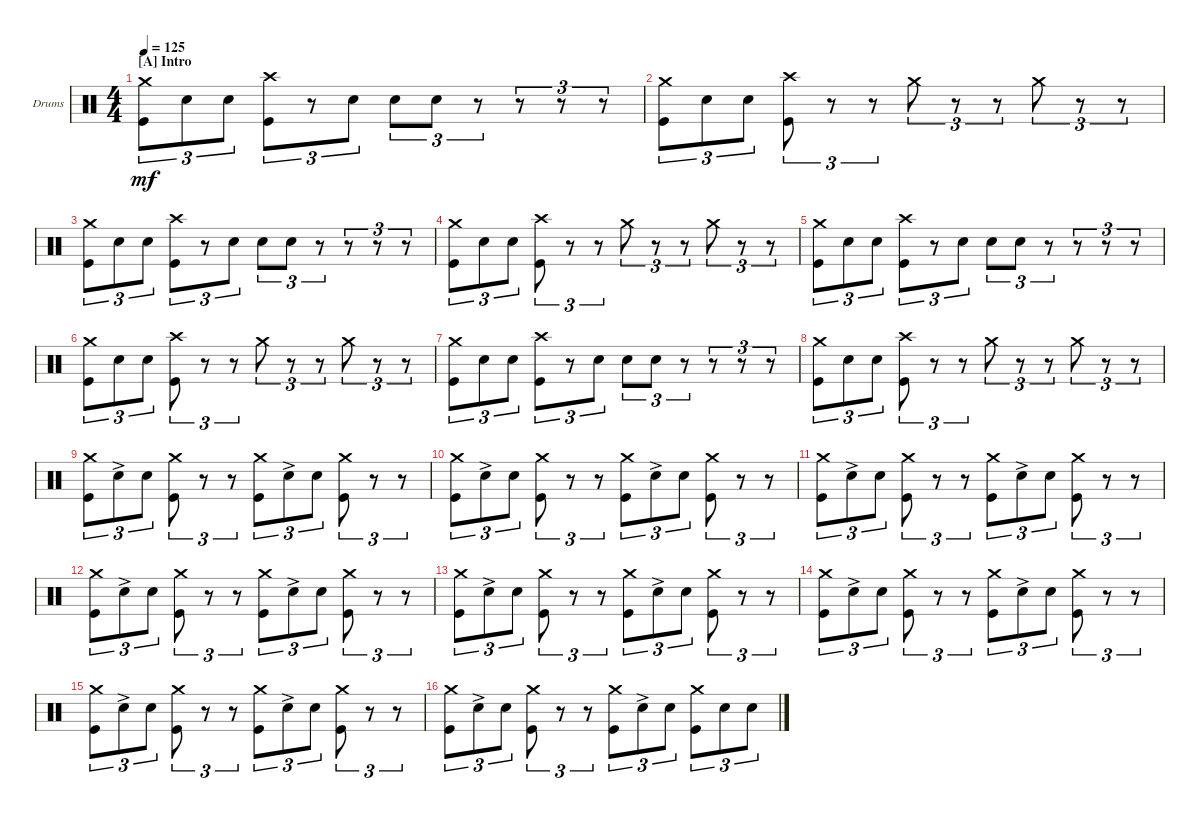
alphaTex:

\defaultSystemsLayout 4
\bracketExtendMode groupsimilarinstruments
\firstSystemTrackNameOrientation horizontal
\otherSystemsTrackNameOrientation horizontal
\track ("Drumkit" "Drums") {instrument percussion}
\staff {score}
\articulation defaults
\ts (4 4)
\section ("A" "Intro")
\tempo 125
\clef neutral
\scale
0.474178
\ks c
("Kick (hit)" "Crash medium (hit)").8{tu (3 2) dy mf} "Snare (hit) 2".8{tu (3 2)} "Snare (hit) 2".8{tu (3 2)} ("Kick (hit)" "Crash high (hit)").8{tu (3 2)} r.8{tu (3 2)} "Snare (hit) 2".8{tu (3 2)} "Snare (hit) 2".8{tu (3 2)} "Snare (hit) 2".8{tu (3 2)} r.8{tu (3 2)} r.8{tu (3 2)} r.8{tu (3 2)} r.8{tu (3 2)} |
\scale
0.262911 ("Kick (hit)" "Crash medium (hit)").8{tu (3 2)} "Snare (hit) 2".8{tu (3 2)} "Snare (hit) 2".8{tu (3 2)} ("Kick (hit)" "Crash high (hit)").8{tu (3 2)} r.8{tu (3 2)} r.8{tu (3 2)} "Crash medium (hit)".8{tu (3 2)} r.8{tu (3 2)} r.8{tu (3 2)} "Crash medium (hit)".8{tu (3 2)} r.8{tu (3 2)} r.8{tu (3 2)} |
\scale
0.262911 ("Kick (hit)" "Crash medium (hit)").8{tu (3 2)} "Snare (hit) 2".8{tu (3 2)} "Snare (hit) 2".8{tu (3 2)} ("Kick (hit)" "Crash high (hit)").8{tu (3 2)} r.8{tu (3 2)} "Snare (hit) 2".8{tu (3 2)} "Snare (hit) 2".8{tu (3 2)} "Snare (hit) 2".8{tu (3 2)} r.8{tu (3 2)} r.8{tu (3 2)} r.8{tu (3 2)} r.8{tu (3 2)} |
\scale
0.333333 ("Kick (hit)" "Crash medium (hit)").8{tu (3 2)} "Snare (hit) 2".8{tu (3 2)} "Snare (hit) 2".8{tu (3 2)} ("Kick (hit)" "Crash high (hit)").8{tu (3 2)} r.8{tu (3 2)} r.8{tu (3 2)} "Crash medium (hit)".8{tu (3 2)} r.8{tu (3 2)} r.8{tu (3 2)} "Crash medium (hit)".8{tu (3 2)} r.8{tu (3 2)} r.8{tu (3 2)} |
\scale
0.333333 ("Kick (hit)" "Crash medium (hit)").8{tu (3 2)} "Snare (hit) 2".8{tu (3 2)} "Snare (hit) 2".8{tu (3 2)} ("Kick (hit)" "Crash high (hit)").8{tu (3 2)} r.8{tu (3 2)} "Snare (hit) 2".8{tu (3 2)} "Snare (hit) 2".8{tu (3 2)} "Snare (hit) 2".8{tu (3 2)} r.8{tu (3 2)} r.8{tu (3 2)} r.8{tu (3 2)} r.8{tu (3 2)} |
\scale
0.333333 ("Kick (hit)" "Crash medium (hit)").8{tu (3 2)} "Snare (hit) 2".8{tu (3 2)} "Snare (hit) 2".8{tu (3 2)} ("Kick (hit)" "Crash high (hit)").8{tu (3 2)} r.8{tu (3 2)} r.8{tu (3 2)} "Crash medium (hit)".8{tu (3 2)} r.8{tu (3 2)} r.8{tu (3 2)} "Crash medium (hit)".8{tu (3 2)} r.8{tu (3 2)} r.8{tu (3 2)} |
\scale
0.333333 ("Kick (hit)" "Crash medium (hit)").8{tu (3 2)} "Snare (hit) 2".8{tu (3 2)} "Snare (hit) 2".8{tu (3 2)} ("Kick (hit)" "Crash high (hit)").8{tu (3 2)} r.8{tu (3 2)} "Snare (hit) 2".8{tu (3 2)} "Snare (hit) 2".8{tu (3 2)} "Snare (hit) 2".8{tu (3 2)} r.8{tu (3 2)} r.8{tu (3 2)} r.8{tu (3 2)} r.8{tu (3 2)} |
\scale
0.333333 ("Kick (hit)" "Crash medium (hit)").8{tu (3 2)} "Snare (hit) 2".8{tu (3 2)} "Snare (hit) 2".8{tu (3 2)} ("Kick (hit)" "Crash high (hit)").8{tu (3 2)} r.8{tu (3 2)} r.8{tu (3 2)} "Crash medium (hit)".8{tu (3 2)} r.8{tu (3 2)} r.8{tu (3 2)} "Crash medium (hit)".8{tu (3 2)} r.8{tu (3 2)} r.8{tu (3 2)} |
\scale
0.333333 ("Kick (hit)" "Crash medium (hit)").8{tu (3 2)} "Snare (hit) 2"{ac}.8{tu (3 2)} "Snare (hit) 2".8{tu (3 2)} ("Kick (hit)" "Crash medium (hit)").8{tu (3 2)} r.8{tu (3 2)} r.8{tu (3 2)} ("Kick (hit)" "Crash medium (hit)").8{tu (3 2)} "Snare (hit) 2"{ac}.8{tu (3 2)} "Snare (hit) 2".8{tu (3 2)} ("Kick (hit)" "Crash medium (hit)").8{tu (3 2)} r.8{tu (3 2)} r.8{tu (3 2)} |
\scale
0.333333 ("Kick (hit)" "Crash medium (hit)").8{tu (3 2)} "Snare (hit) 2"{ac}.8{tu (3 2)} "Snare (hit) 2".8{tu (3 2)} ("Kick (hit)" "Crash medium (hit)").8{tu (3 2)} r.8{tu (3 2)} r.8{tu (3 2)} ("Kick (hit)" "Crash medium (hit)").8{tu (3 2)} "Snare (hit) 2"{ac}.8{tu (3 2)} "Snare (hit) 2".8{tu (3 2)} ("Kick (hit)" "Crash medium (hit)").8{tu (3 2)} r.8{tu (3 2)} r.8{tu (3 2)} |
\scale
0.333333 ("Kick (hit)" "Crash medium (hit)").8{tu (3 2)} "Snare (hit) 2"{ac}.8{tu (3 2)} "Snare (hit) 2".8{tu (3 2)} ("Kick (hit)" "Crash medium (hit)").8{tu (3 2)} r.8{tu (3 2)} r.8{tu (3 2)} ("Kick (hit)" "Crash medium (hit)").8{tu (3 2)} "Snare (hit) 2"{ac}.8{tu (3 2)} "Snare (hit) 2".8{tu (3 2)} ("Kick (hit)" "Crash medium (hit)").8{tu (3 2)} r.8{tu (3 2)} r.8{tu (3 2)} |
\scale
0.333333 ("Kick (hit)" "Crash medium (hit)").8{tu (3 2)} "Snare (hit) 2"{ac}.8{tu (3 2)} "Snare (hit) 2".8{tu (3 2)} ("Kick (hit)" "Crash medium (hit)").8{tu (3 2)} r.8{tu (3 2)} r.8{tu (3 2)} ("Kick (hit)" "Crash medium (hit)").8{tu (3 2)} "Snare (hit) 2"{ac}.8{tu (3 2)} "Snare (hit) 2".8{tu (3 2)} ("Kick (hit)" "Crash medium (hit)").8{tu (3 2)} r.8{tu (3 2)} r.8{tu (3 2)} |
\scale
0.333333 ("Kick (hit)" "Crash medium (hit)").8{tu (3 2)} "Snare (hit) 2"{ac}.8{tu (3 2)} "Snare (hit) 2".8{tu (3 2)} ("Kick (hit)" "Crash medium (hit)").8{tu (3 2)} r.8{tu (3 2)} r.8{tu (3 2)} ("Kick (hit)" "Crash medium (hit)").8{tu (3 2)} "Snare (hit) 2"{ac}.8{tu (3 2)} "Snare (hit) 2".8{tu (3 2)} ("Kick (hit)" "Crash medium (hit)").8{tu (3 2)} r.8{tu (3 2)} r.8{tu (3 2)} |
\scale
0.333333 ("Kick (hit)" "Crash medium (hit)").8{tu (3 2)} "Snare (hit) 2"{ac}.8{tu (3 2)} "Snare (hit) 2".8{tu (3 2)} ("Kick (hit)" "Crash medium (hit)").8{tu (3 2)} r.8{tu (3 2)} r.8{tu (3 2)} ("Kick (hit)" "Crash medium (hit)").8{tu (3 2)} "Snare (hit) 2"{ac}.8{tu (3 2)} "Snare (hit) 2".8{tu (3 2)} ("Kick (hit)" "Crash medium (hit)").8{tu (3 2)} r.8{tu (3 2)} r.8{tu (3 2)} |
\scale
0.333333 ("Kick (hit)" "Crash medium (hit)").8{tu (3 2)} "Snare (hit) 2"{ac}.8{tu (3 2)} "Snare (hit) 2".8{tu (3 2)} ("Kick (hit)" "Crash medium (hit)").8{tu (3 2)} r.8{tu (3 2)} r.8{tu (3 2)} ("Kick (hit)" "Crash medium (hit)").8{tu (3 2)} "Snare (hit) 2"{ac}.8{tu (3 2)} "Snare (hit) 2".8{tu (3 2)} ("Kick (hit)" "Crash medium (hit)").8{tu (3 2)} r.8{tu (3 2)} r.8{tu (3 2)} |
\scale
0.333333 ("Kick (hit)" "Crash medium (hit)").8{tu (3 2)} "Snare (hit) 2"{ac}.8{tu (3 2)} "Snare (hit) 2".8{tu (3 2)} ("Kick (hit)" "Crash medium (hit)").8{tu (3 2)} r.8{tu (3 2)} r.8{tu (3 2)} ("Kick (hit)" "Crash medium (hit)").8{tu (3 2)} "Snare (hit) 2"{ac}.8{tu (3 2)} "Snare (hit) 2".8{tu (3 2)} ("Kick (hit)" "Crash medium (hit)").8{tu (3 2)} "Snare (hit) 2".8{tu (3 2)} "Snare (hit) 2".8{tu (3 2)}
